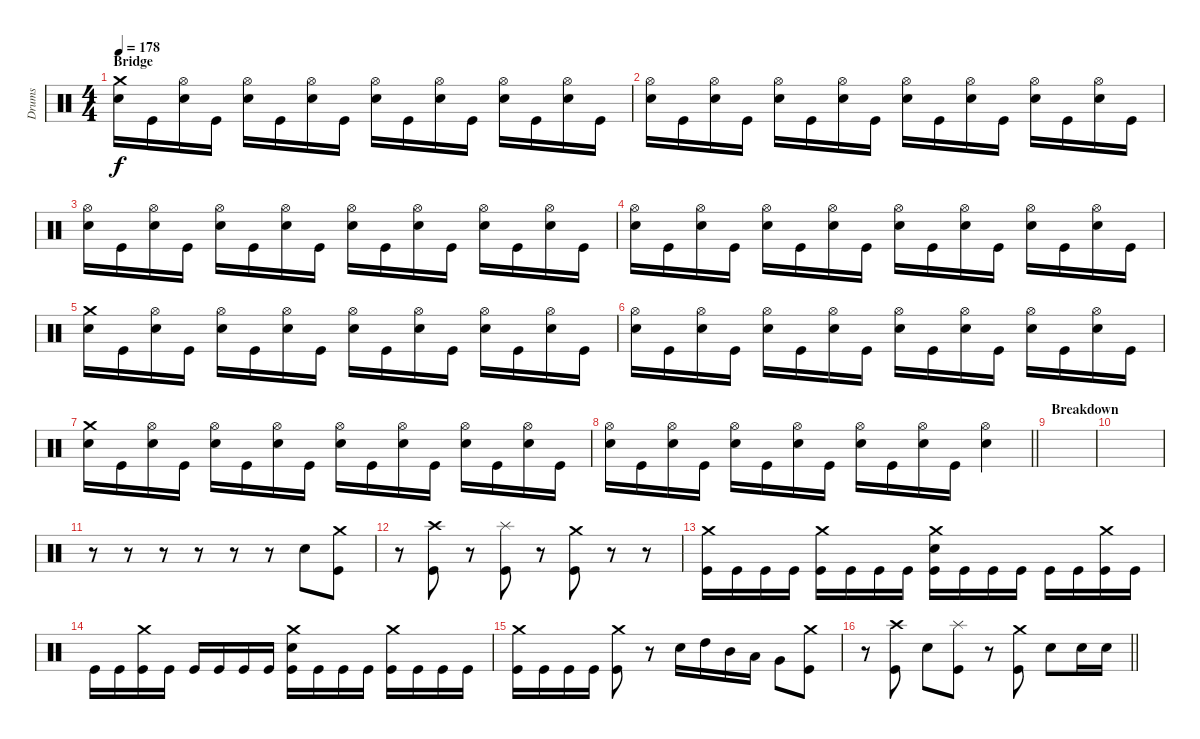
\track ("Drums" "Drums") {instrument percussion}
\staff {score}
\articulation defaults
\ts (4 4)
\section ("" "Bridge")
\tempo 178
\clef neutral
\ks c
("Crash medium (hit)" "Electric Snare (hit)").16{dy f} "Kick (hit)".16 ("Hi-Hat (open)" "Electric Snare (hit)").16 "Kick (hit)".16 ("Hi-Hat (open)" "Electric Snare (hit)").16 "Kick (hit)".16 ("Hi-Hat (open)" "Electric Snare (hit)").16 "Kick (hit)".16 ("Hi-Hat (open)" "Electric Snare (hit)").16 "Kick (hit)".16 ("Hi-Hat (open)" "Electric Snare (hit)").16 "Kick (hit)".16 ("Hi-Hat (open)" "Electric Snare (hit)").16 "Kick (hit)".16 ("Hi-Hat (open)" "Electric Snare (hit)").16 "Kick (hit)".16 |
("Hi-Hat (open)" "Electric Snare (hit)").16 "Kick (hit)".16 ("Hi-Hat (open)" "Electric Snare (hit)").16 "Kick (hit)".16 ("Hi-Hat (open)" "Electric Snare (hit)").16 "Kick (hit)".16 ("Hi-Hat (open)" "Electric Snare (hit)").16 "Kick (hit)".16 ("Hi-Hat (open)" "Electric Snare (hit)").16 "Kick (hit)".16 ("Hi-Hat (open)" "Electric Snare (hit)").16 "Kick (hit)".16 ("Hi-Hat (open)" "Electric Snare (hit)").16 "Kick (hit)".16 ("Hi-Hat (open)" "Electric Snare (hit)").16 "Kick (hit)".16 |
("Hi-Hat (open)" "Electric Snare (hit)").16 "Kick (hit)".16 ("Hi-Hat (open)" "Electric Snare (hit)").16 "Kick (hit)".16 ("Hi-Hat (open)" "Electric Snare (hit)").16 "Kick (hit)".16 ("Hi-Hat (open)" "Electric Snare (hit)").16 "Kick (hit)".16 ("Hi-Hat (open)" "Electric Snare (hit)").16 "Kick (hit)".16 ("Hi-Hat (open)" "Electric Snare (hit)").16 "Kick (hit)".16 ("Hi-Hat (open)" "Electric Snare (hit)").16 "Kick (hit)".16 ("Hi-Hat (open)" "Electric Snare (hit)").16 "Kick (hit)".16 |
("Hi-Hat (open)" "Electric Snare (hit)").16 "Kick (hit)".16 ("Hi-Hat (open)" "Electric Snare (hit)").16 "Kick (hit)".16 ("Hi-Hat (open)" "Electric Snare (hit)").16 "Kick (hit)".16 ("Hi-Hat (open)" "Electric Snare (hit)").16 "Kick (hit)".16 ("Hi-Hat (open)" "Electric Snare (hit)").16 "Kick (hit)".16 ("Hi-Hat (open)" "Electric Snare (hit)").16 "Kick (hit)".16 ("Hi-Hat (open)" "Electric Snare (hit)").16 "Kick (hit)".16 ("Hi-Hat (open)" "Electric Snare (hit)").16 "Kick (hit)".16 |
("Crash medium (hit)" "Electric Snare (hit)").16 "Kick (hit)".16 ("Hi-Hat (open)" "Electric Snare (hit)").16 "Kick (hit)".16 ("Hi-Hat (open)" "Electric Snare (hit)").16 "Kick (hit)".16 ("Hi-Hat (open)" "Electric Snare (hit)").16 "Kick (hit)".16 ("Hi-Hat (open)" "Electric Snare (hit)").16 "Kick (hit)".16 ("Hi-Hat (open)" "Electric Snare (hit)").16 "Kick (hit)".16 ("Hi-Hat (open)" "Electric Snare (hit)").16 "Kick (hit)".16 ("Hi-Hat (open)" "Electric Snare (hit)").16 "Kick (hit)".16 |
("Hi-Hat (open)" "Electric Snare (hit)").16 "Kick (hit)".16 ("Hi-Hat (open)" "Electric Snare (hit)").16 "Kick (hit)".16 ("Hi-Hat (open)" "Electric Snare (hit)").16 "Kick (hit)".16 ("Hi-Hat (open)" "Electric Snare (hit)").16 "Kick (hit)".16 ("Hi-Hat (open)" "Electric Snare (hit)").16 "Kick (hit)".16 ("Hi-Hat (open)" "Electric Snare (hit)").16 "Kick (hit)".16 ("Hi-Hat (open)" "Electric Snare (hit)").16 "Kick (hit)".16 ("Hi-Hat (open)" "Electric Snare (hit)").16 "Kick (hit)".16 |
("Crash medium (hit)" "Electric Snare (hit)").16 "Kick (hit)".16 ("Hi-Hat (open)" "Electric Snare (hit)").16 "Kick (hit)".16 ("Hi-Hat (open)" "Electric Snare (hit)").16 "Kick (hit)".16 ("Hi-Hat (open)" "Electric Snare (hit)").16 "Kick (hit)".16 ("Hi-Hat (open)" "Electric Snare (hit)").16 "Kick (hit)".16 ("Hi-Hat (open)" "Electric Snare (hit)").16 "Kick (hit)".16 ("Hi-Hat (open)" "Electric Snare (hit)").16 "Kick (hit)".16 ("Hi-Hat (open)" "Electric Snare (hit)").16 "Kick (hit)".16 |
\barLineRight lightlight
("Hi-Hat (open)" "Electric Snare (hit)").16 "Kick (hit)".16 ("Hi-Hat (open)" "Electric Snare (hit)").16 "Kick (hit)".16 ("Hi-Hat (open)" "Electric Snare (hit)").16 "Kick (hit)".16 ("Hi-Hat (open)" "Electric Snare (hit)").16 "Kick (hit)".16 ("Hi-Hat (open)" "Electric Snare (hit)").16 "Kick (hit)".16 ("Hi-Hat (open)" "Electric Snare (hit)").16 "Kick (hit)".16 ("Hi-Hat (open)" "Electric Snare (hit)").4 |
\section ("" "Breakdown")
|
|
r.8 r.8 r.8 r.8 r.8 r.8 "Electric Snare (hit)".8 ("Crash medium (hit)" "Kick (hit)").8 |
r.8 ("Crash high (hit)" "Kick (hit)").8 r.8 ("Splash (hit)" "Kick (hit)").8 r.8 ("Crash medium (hit)" "Kick (hit)").8 r.8 r.8 |
("Crash medium (hit)" "Kick (hit)").16 "Kick (hit)".16 "Kick (hit)".16 "Kick (hit)".16 ("Crash medium (hit)" "Kick (hit)").16 "Kick (hit)".16 "Kick (hit)".16 "Kick (hit)".16 ("Crash medium (hit)" "Electric Snare (hit)" "Kick (hit)").16 "Kick (hit)".16 "Kick (hit)".16 "Kick (hit)".16 "Kick (hit)".16 "Kick (hit)".16 ("Crash medium (hit)" "Kick (hit)").16 "Kick (hit)".16 |
"Kick (hit)".16 "Kick (hit)".16 ("Crash medium (hit)" "Kick (hit)").16 "Kick (hit)".16 "Kick (hit)".16 "Kick (hit)".16 "Kick (hit)".16 "Kick (hit)".16 ("Crash medium (hit)" "Electric Snare (hit)" "Kick (hit)").16 "Kick (hit)".16 "Kick (hit)".16 "Kick (hit)".16 ("Crash medium (hit)" "Kick (hit)").16 "Kick (hit)".16 "Kick (hit)".16 "Kick (hit)".16 |
("Crash medium (hit)" "Kick (hit)").16 "Kick (hit)".16 "Kick (hit)".16 "Kick (hit)".16 ("Crash medium (hit)" "Kick (hit)").8 r.8 "Electric Snare (hit)".16 "High Tom (hit)".16 "Mid Tom (hit)".16 "Low Tom (hit)".16 "Very Low Tom (hit)".8 ("Crash medium (hit)" "Kick (hit)").8 |
\barLineRight lightlight
r.8 ("Crash high (hit)" "Kick (hit)").8 "Electric Snare (hit)".8 ("Splash (hit)" "Kick (hit)").8 r.8 ("Crash medium (hit)" "Kick (hit)").8 "Electric Snare (hit)".8 "Electric Snare (hit)".16 "Electric Snare (hit)".16
